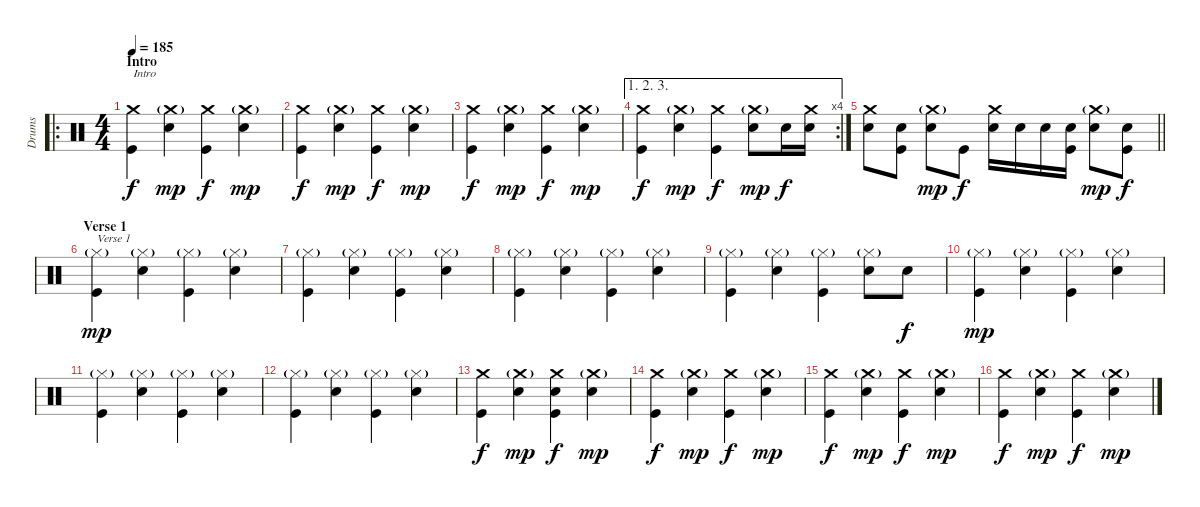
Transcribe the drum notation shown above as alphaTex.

\track ("Drums" "Drums") {instrument percussion}
\staff {score}
\articulation defaults
\ro
\ts (4 4)
\section ("" "Intro")
\tempo 185
\clef neutral
\ks c
("Crash medium (hit)" "Kick (hit)").4{txt "Intro" dy f} ("Crash medium (hit)"{g} "Snare (hit) 2").4{dy mp} ("Crash medium (hit)" "Kick (hit)").4{dy f} ("Crash medium (hit)"{g} "Snare (hit) 2").4{dy mp} |
("Crash medium (hit)" "Kick (hit)").4{dy f} ("Crash medium (hit)"{g} "Snare (hit) 2").4{dy mp} ("Crash medium (hit)" "Kick (hit)").4{dy f} ("Crash medium (hit)"{g} "Snare (hit) 2").4{dy mp} |
("Crash medium (hit)" "Kick (hit)").4{dy f} ("Crash medium (hit)"{g} "Snare (hit) 2").4{dy mp} ("Crash medium (hit)" "Kick (hit)").4{dy f} ("Crash medium (hit)"{g} "Snare (hit) 2").4{dy mp} |
\ae (1 2 3)
\rc 4
("Crash medium (hit)" "Kick (hit)").4{dy f} ("Crash medium (hit)"{g} "Snare (hit) 2").4{dy mp} ("Crash medium (hit)" "Kick (hit)").4{dy f} ("Crash medium (hit)"{g} "Snare (hit) 2").8{dy mp} "Snare (hit) 2".16{dy f} ("Crash medium (hit)" "Snare (hit) 2").16 |
\barLineRight lightlight
("Crash medium (hit)" "Snare (hit) 2").8 ("Snare (hit) 2" "Kick (hit)").8 ("Crash medium (hit)"{g} "Snare (hit) 2").8{dy mp} "Kick (hit)".8{dy f} ("Crash medium (hit)" "Snare (hit) 2").16 "Snare (hit) 2".16 "Snare (hit) 2".16 ("Snare (hit) 2" "Kick (hit)").16 ("Crash medium (hit)"{g} "Snare (hit) 2").8{dy mp} ("Snare (hit) 2" "Kick (hit)").8{dy f} |
\section ("" "Verse 1")
("Hi-Hat (closed)"{g} "Kick (hit)").4{txt "Verse 1" dy mp} ("Hi-Hat (closed)"{g} "Snare (hit) 2").4 ("Hi-Hat (closed)"{g} "Kick (hit)").4 ("Hi-Hat (closed)"{g} "Snare (hit) 2").4 |
("Hi-Hat (closed)"{g} "Kick (hit)").4 ("Hi-Hat (closed)"{g} "Snare (hit) 2").4 ("Hi-Hat (closed)"{g} "Kick (hit)").4 ("Hi-Hat (closed)"{g} "Snare (hit) 2").4 |
("Hi-Hat (closed)"{g} "Kick (hit)").4 ("Hi-Hat (closed)"{g} "Snare (hit) 2").4 ("Hi-Hat (closed)"{g} "Kick (hit)").4 ("Hi-Hat (closed)"{g} "Snare (hit) 2").4 |
("Hi-Hat (closed)"{g} "Kick (hit)").4 ("Hi-Hat (closed)"{g} "Snare (hit) 2").4 ("Hi-Hat (closed)"{g} "Kick (hit)").4 ("Hi-Hat (closed)"{g} "Electric Snare (hit)").8 "Snare (hit) 2".8{dy f} |
("Hi-Hat (closed)"{g} "Kick (hit)").4{dy mp} ("Hi-Hat (closed)"{g} "Snare (hit) 2").4 ("Hi-Hat (closed)"{g} "Kick (hit)").4 ("Hi-Hat (closed)"{g} "Snare (hit) 2").4 |
("Hi-Hat (closed)"{g} "Kick (hit)").4 ("Hi-Hat (closed)"{g} "Snare (hit) 2").4 ("Hi-Hat (closed)"{g} "Kick (hit)").4 ("Hi-Hat (closed)"{g} "Snare (hit) 2").4 |
("Hi-Hat (closed)"{g} "Kick (hit)").4 ("Hi-Hat (closed)"{g} "Snare (hit) 2").4 ("Hi-Hat (closed)"{g} "Kick (hit)").4 ("Hi-Hat (closed)"{g} "Snare (hit) 2").4 |
("Crash medium (hit)" "Kick (hit)").4{dy f} ("Crash medium (hit)"{g} "Snare (hit) 2").4{dy mp} ("Crash medium (hit)" "Snare (hit) 2" "Kick (hit)").4{dy f} ("Crash medium (hit)"{g} "Snare (hit) 2").4{dy mp} |
("Crash medium (hit)" "Kick (hit)").4{dy f} ("Crash medium (hit)"{g} "Snare (hit) 2").4{dy mp} ("Crash medium (hit)" "Kick (hit)").4{dy f} ("Crash medium (hit)"{g} "Snare (hit) 2").4{dy mp} |
("Crash medium (hit)" "Kick (hit)").4{dy f} ("Crash medium (hit)"{g} "Snare (hit) 2").4{dy mp} ("Crash medium (hit)" "Kick (hit)").4{dy f} ("Crash medium (hit)"{g} "Snare (hit) 2").4{dy mp} |
("Crash medium (hit)" "Kick (hit)").4{dy f} ("Crash medium (hit)"{g} "Snare (hit) 2").4{dy mp} ("Crash medium (hit)" "Kick (hit)").4{dy f} ("Crash medium (hit)"{g} "Snare (hit) 2").4{dy mp}
